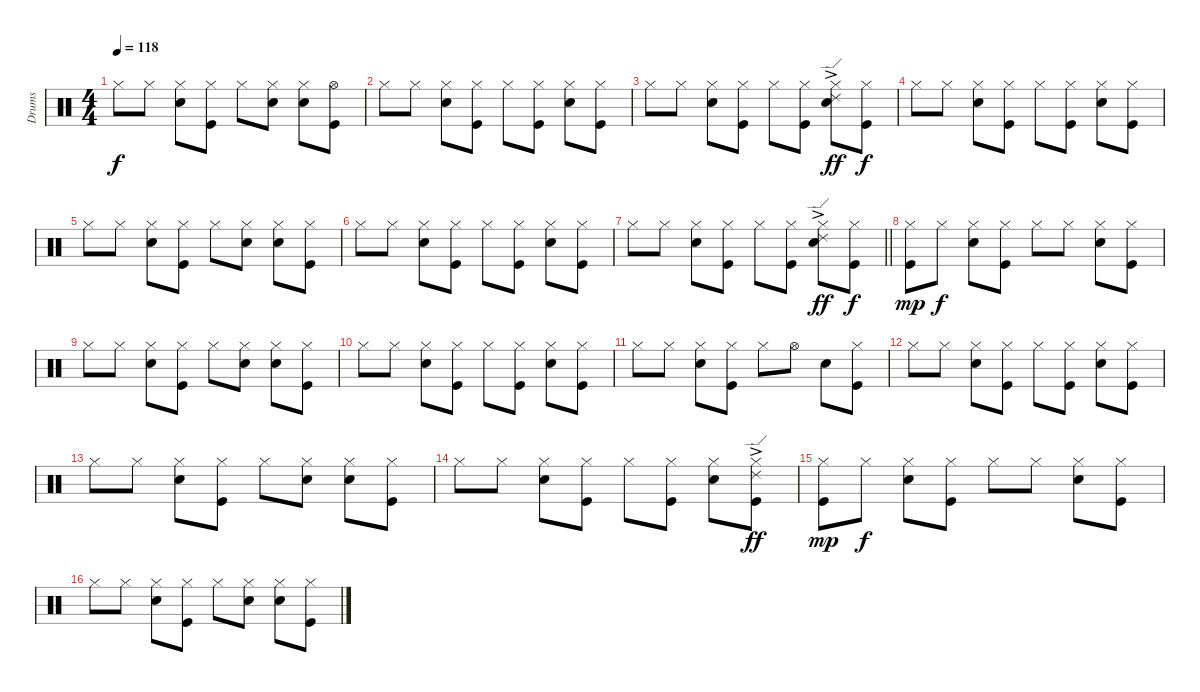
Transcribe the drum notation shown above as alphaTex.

\track ("Drums" "Drums") {instrument percussion}
\staff {score}
\articulation defaults
\ts (4 4)
\tempo 118
\clef neutral
\ks c "Hi-Hat (closed)".8{dy f} "Hi-Hat (closed)".8
("Hi-Hat (closed)" "Snare (hit) 2").8 ("Hi-Hat (closed)" "Kick (hit)").8 "Hi-Hat (closed)".8 ("Hi-Hat (closed)" "Snare (hit) 2").8 ("Hi-Hat (closed)" "Snare (hit) 2").8 ("Hi-Hat (open)" "Kick (hit)").8 |
"Hi-Hat (closed)".8 "Hi-Hat (closed)".8 ("Hi-Hat (closed)" "Snare (hit) 2").8 ("Hi-Hat (closed)" "Kick (hit)").8 "Hi-Hat (closed)".8 ("Hi-Hat (closed)" "Kick (hit)").8 ("Hi-Hat (closed)" "Snare (hit) 2").8 ("Hi-Hat (closed)" "Kick (hit)").8 |
"Hi-Hat (closed)".8 "Hi-Hat (closed)".8 ("Hi-Hat (closed)" "Snare (hit) 2").8 ("Hi-Hat (closed)" "Kick (hit)").8 "Hi-Hat (closed)".8 ("Hi-Hat (closed)" "Kick (hit)").8 ("Hi-Hat (closed)" "Snare (hit) 2" "Ride (edge) 2"{ac}).8{dy ff} ("Hi-Hat (closed)" "Kick (hit)").8{dy f} |
"Hi-Hat (closed)".8 "Hi-Hat (closed)".8 ("Hi-Hat (closed)" "Snare (hit) 2").8 ("Hi-Hat (closed)" "Kick (hit)").8 "Hi-Hat (closed)".8 ("Hi-Hat (closed)" "Kick (hit)").8 ("Hi-Hat (closed)" "Snare (hit) 2").8 ("Hi-Hat (closed)" "Kick (hit)").8 |
"Hi-Hat (closed)".8 "Hi-Hat (closed)".8 ("Hi-Hat (closed)" "Snare (hit) 2").8 ("Hi-Hat (closed)" "Kick (hit)").8 "Hi-Hat (closed)".8 ("Hi-Hat (closed)" "Snare (hit) 2").8 ("Hi-Hat (closed)" "Snare (hit) 2").8 ("Hi-Hat (closed)" "Kick (hit)").8 |
"Hi-Hat (closed)".8 "Hi-Hat (closed)".8 ("Hi-Hat (closed)" "Snare (hit) 2").8 ("Hi-Hat (closed)" "Kick (hit)").8 "Hi-Hat (closed)".8 ("Hi-Hat (closed)" "Kick (hit)").8 ("Hi-Hat (closed)" "Snare (hit) 2").8 ("Hi-Hat (closed)" "Kick (hit)").8 |
\barLineRight lightlight "Hi-Hat (closed)".8 "Hi-Hat (closed)".8
("Hi-Hat (closed)" "Snare (hit) 2").8 ("Hi-Hat (closed)" "Kick (hit)").8 "Hi-Hat (closed)".8 ("Hi-Hat (closed)" "Kick (hit)").8 ("Hi-Hat (closed)" "Snare (hit) 2" "Ride (edge) 2"{ac}).8{dy ff} ("Hi-Hat (closed)" "Kick (hit)").8{dy f} |
("Hi-Hat (closed)" "Kick (hit)").8{dy mp} "Hi-Hat (closed)".8{dy f} ("Hi-Hat (closed)" "Snare (hit) 2").8 ("Hi-Hat (closed)" "Kick (hit)").8 "Hi-Hat (closed)".8 "Hi-Hat (closed)".8 ("Hi-Hat (closed)" "Snare (hit) 2").8 ("Hi-Hat (closed)" "Kick (hit)").8 |
"Hi-Hat (closed)".8 "Hi-Hat (closed)".8 ("Hi-Hat (closed)" "Snare (hit) 2").8 ("Hi-Hat (closed)" "Kick (hit)").8 "Hi-Hat (closed)".8 ("Hi-Hat (closed)" "Snare (hit) 2").8 ("Hi-Hat (closed)" "Snare (hit) 2").8 ("Hi-Hat (closed)" "Kick (hit)").8 |
"Hi-Hat (closed)".8 "Hi-Hat (closed)".8 ("Hi-Hat (closed)" "Snare (hit) 2").8 ("Hi-Hat (closed)" "Kick (hit)").8 "Hi-Hat (closed)".8 ("Hi-Hat (closed)" "Kick (hit)").8 ("Hi-Hat (closed)" "Snare (hit) 2").8 ("Hi-Hat (closed)" "Kick (hit)").8 |
"Hi-Hat (closed)".8 "Hi-Hat (closed)".8 ("Hi-Hat (closed)" "Snare (hit) 2").8 ("Hi-Hat (closed)" "Kick (hit)").8 "Hi-Hat (closed)".8 "Hi-Hat (open)".8 "Snare (hit) 2".8 ("Hi-Hat (closed)" "Kick (hit)").8 |
"Hi-Hat (closed)".8 "Hi-Hat (closed)".8 ("Hi-Hat (closed)" "Snare (hit) 2").8 ("Hi-Hat (closed)" "Kick (hit)").8 "Hi-Hat (closed)".8 ("Hi-Hat (closed)" "Kick (hit)").8 ("Hi-Hat (closed)" "Snare (hit) 2").8 ("Hi-Hat (closed)" "Kick (hit)").8 |
"Hi-Hat (closed)".8 "Hi-Hat (closed)".8 ("Hi-Hat (closed)" "Snare (hit) 2").8 ("Hi-Hat (closed)" "Kick (hit)").8 "Hi-Hat (closed)".8 ("Hi-Hat (closed)" "Snare (hit) 2").8 ("Hi-Hat (closed)" "Snare (hit) 2").8 ("Hi-Hat (closed)" "Kick (hit)").8 |
"Hi-Hat (closed)".8 "Hi-Hat (closed)".8 ("Hi-Hat (closed)" "Snare (hit) 2").8 ("Hi-Hat (closed)" "Kick (hit)").8 "Hi-Hat (closed)".8 ("Hi-Hat (closed)" "Kick (hit)").8 ("Hi-Hat (closed)" "Snare (hit) 2").8 ("Hi-Hat (closed)" "Ride (edge) 2"{ac} "Kick (hit)").8{dy ff} |
("Hi-Hat (closed)" "Kick (hit)").8{dy mp} "Hi-Hat (closed)".8{dy f} ("Hi-Hat (closed)" "Snare (hit) 2").8 ("Hi-Hat (closed)" "Kick (hit)").8 "Hi-Hat (closed)".8 "Hi-Hat (closed)".8 ("Hi-Hat (closed)" "Snare (hit) 2").8 ("Hi-Hat (closed)" "Kick (hit)").8 |
"Hi-Hat (closed)".8 "Hi-Hat (closed)".8 ("Hi-Hat (closed)" "Snare (hit) 2").8 ("Hi-Hat (closed)" "Kick (hit)").8 "Hi-Hat (closed)".8 ("Hi-Hat (closed)" "Snare (hit) 2").8 ("Hi-Hat (closed)" "Snare (hit) 2").8 ("Hi-Hat (closed)" "Kick (hit)").8
